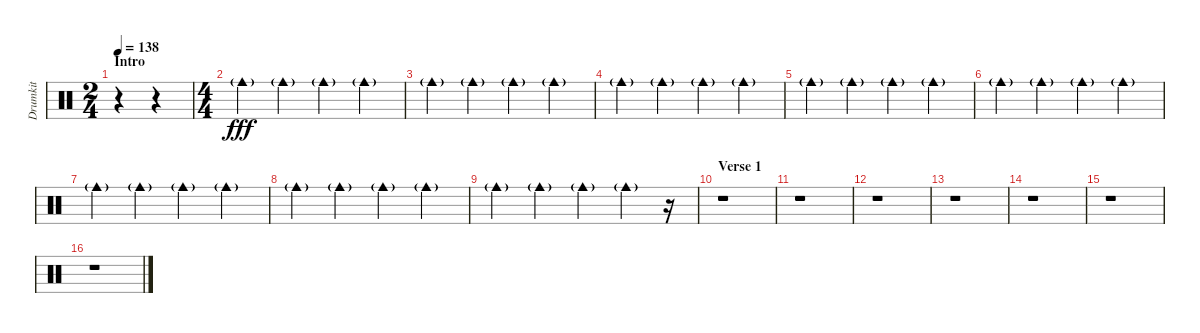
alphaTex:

\track ("Drumkit" "Drumkit") {instrument percussion}
\staff {score}
\articulation defaults
\ts (2 4)
\section ("" "Intro")
\tempo 138
\clef neutral
\ks c
r.4{dy fff} r.4 |
\ts (4 4)
"Cowbell medium (hit)"{g}.4 "Cowbell medium (hit)"{g}.4 "Cowbell medium (hit)"{g}.4 "Cowbell medium (hit)"{g}.4 |
"Cowbell medium (hit)"{g}.4 "Cowbell medium (hit)"{g}.4 "Cowbell medium (hit)"{g}.4 "Cowbell medium (hit)"{g}.4 |
"Cowbell medium (hit)"{g}.4 "Cowbell medium (hit)"{g}.4 "Cowbell medium (hit)"{g}.4 "Cowbell medium (hit)"{g}.4 |
"Cowbell medium (hit)"{g}.4 "Cowbell medium (hit)"{g}.4 "Cowbell medium (hit)"{g}.4 "Cowbell medium (hit)"{g}.4 |
"Cowbell medium (hit)"{g}.4 "Cowbell medium (hit)"{g}.4 "Cowbell medium (hit)"{g}.4 "Cowbell medium (hit)"{g}.4 |
"Cowbell medium (hit)"{g}.4 "Cowbell medium (hit)"{g}.4 "Cowbell medium (hit)"{g}.4 "Cowbell medium (hit)"{g}.4 |
"Cowbell medium (hit)"{g}.4 "Cowbell medium (hit)"{g}.4 "Cowbell medium (hit)"{g}.4 "Cowbell medium (hit)"{g}.4 |
"Cowbell medium (hit)"{g}.4 "Cowbell medium (hit)"{g}.4 "Cowbell medium (hit)"{g}.4 "Cowbell medium (hit)"{g}.4 r.16 |
\section ("" "Verse 1")
r.1 |
r.1 |
r.1 |
r.1 |
r.1 |
r.1 |
r.1
